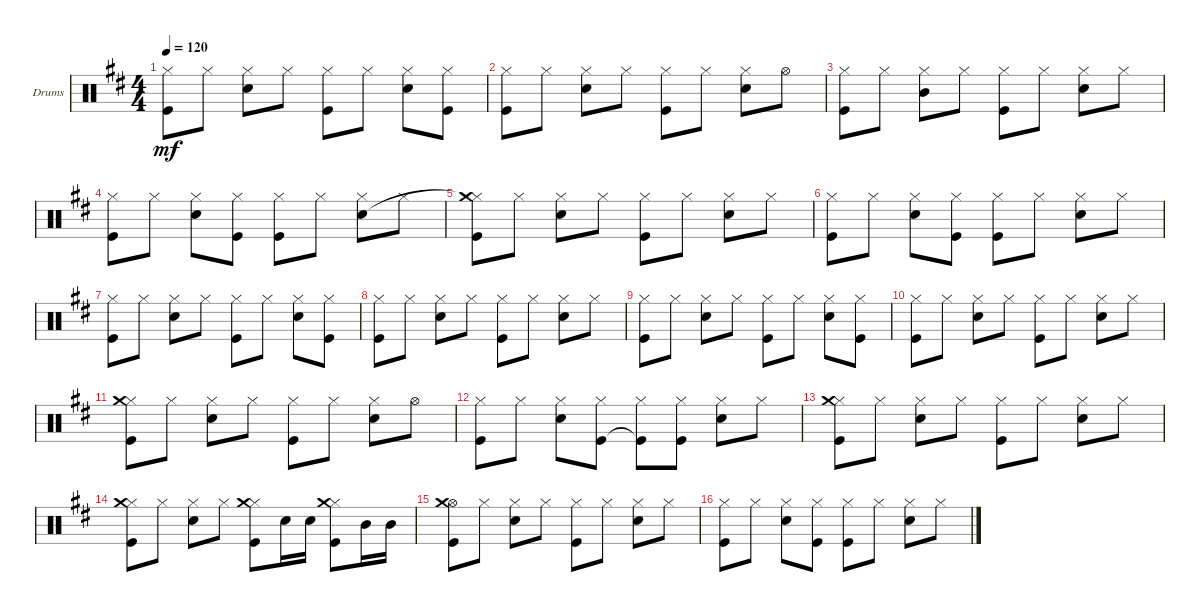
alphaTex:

\defaultSystemsLayout 4
\bracketExtendMode groupsimilarinstruments
\firstSystemTrackNameOrientation horizontal
\otherSystemsTrackNameOrientation horizontal
\track ("Drumkit" "Drums") {instrument percussion}
\staff {score}
\articulation defaults
\ts (4 4)
\tempo 120
\clef neutral
\ks d
("Hi-Hat (closed)" "Kick (hit)").8{dy mf} "Hi-Hat (closed)".8 ("Hi-Hat (closed)" "Snare (hit) 2").8 "Hi-Hat (closed)".8 ("Hi-Hat (closed)" "Kick (hit)").8 "Hi-Hat (closed)".8 ("Hi-Hat (closed)" "Snare (hit) 2").8 ("Hi-Hat (closed)" "Kick (hit)").8 |
("Hi-Hat (closed)" "Kick (hit)").8 "Hi-Hat (closed)".8 ("Hi-Hat (closed)" "Snare (hit) 2").8 "Hi-Hat (closed)".8 ("Hi-Hat (closed)" "Kick (hit)").8 "Hi-Hat (closed)".8 ("Hi-Hat (closed)" "Snare (hit) 2").8 "Hi-Hat (open)".8 |
("Hi-Hat (closed)" "Kick (hit)").8 "Hi-Hat (closed)".8 ("Hi-Hat (closed)" "Mid Tom (hit)").8 "Hi-Hat (closed)".8 ("Hi-Hat (closed)" "Kick (hit)").8 "Hi-Hat (closed)".8 ("Snare (hit) 2" "Hi-Hat (closed)").8 "Hi-Hat (closed)".8 |
("Hi-Hat (closed)" "Kick (hit)").8 "Hi-Hat (closed)".8 ("Hi-Hat (closed)" "Snare (hit) 2").8 ("Hi-Hat (closed)" "Kick (hit)").8 ("Hi-Hat (closed)" "Kick (hit)").8 "Hi-Hat (closed)".8 ("Hi-Hat (closed)" "Snare (hit) 2").8 "Hi-Hat (closed)".8 |
("Kick (hit)" "Hi-Hat (closed)"{t} "Crash medium (hit)").8 "Hi-Hat (closed)".8 ("Hi-Hat (closed)" "Snare (hit) 2").8 "Hi-Hat (closed)".8 ("Hi-Hat (closed)" "Kick (hit)").8 "Hi-Hat (closed)".8 ("Hi-Hat (closed)" "Snare (hit) 2").8 "Hi-Hat (closed)".8 |
("Kick (hit)" "Hi-Hat (closed)").8 "Hi-Hat (closed)".8 ("Hi-Hat (closed)" "Snare (hit) 2").8 ("Kick (hit)" "Hi-Hat (closed)").8 ("Hi-Hat (closed)" "Kick (hit)").8 "Hi-Hat (closed)".8 ("Hi-Hat (closed)" "Snare (hit) 2").8 "Hi-Hat (closed)".8 |
("Hi-Hat (closed)" "Kick (hit)").8 "Hi-Hat (closed)".8 ("Hi-Hat (closed)" "Snare (hit) 2").8 "Hi-Hat (closed)".8 ("Hi-Hat (closed)" "Kick (hit)").8 "Hi-Hat (closed)".8 ("Hi-Hat (closed)" "Snare (hit) 2").8 ("Kick (hit)" "Hi-Hat (closed)").8 |
("Hi-Hat (closed)" "Kick (hit)").8 "Hi-Hat (closed)".8 ("Hi-Hat (closed)" "Snare (hit) 2").8 "Hi-Hat (closed)".8 ("Hi-Hat (closed)" "Kick (hit)").8 "Hi-Hat (closed)".8 ("Hi-Hat (closed)" "Snare (hit) 2").8 "Hi-Hat (closed)".8 |
("Hi-Hat (closed)" "Kick (hit)").8 "Hi-Hat (closed)".8 ("Hi-Hat (closed)" "Snare (hit) 2").8 "Hi-Hat (closed)".8 ("Hi-Hat (closed)" "Kick (hit)").8 "Hi-Hat (closed)".8 ("Hi-Hat (closed)" "Snare (hit) 2").8 ("Hi-Hat (closed)" "Kick (hit)").8 |
("Hi-Hat (closed)" "Kick (hit)").8 "Hi-Hat (closed)".8 ("Hi-Hat (closed)" "Snare (hit) 2").8 "Hi-Hat (closed)".8 ("Hi-Hat (closed)" "Kick (hit)").8 "Hi-Hat (closed)".8 ("Hi-Hat (closed)" "Snare (hit) 2").8 "Hi-Hat (closed)".8 |
("Hi-Hat (closed)" "Crash medium (hit)" "Kick (hit)").8 "Hi-Hat (closed)".8 ("Hi-Hat (closed)" "Snare (hit) 2").8 "Hi-Hat (closed)".8 ("Hi-Hat (closed)" "Kick (hit)").8 "Hi-Hat (closed)".8 ("Hi-Hat (closed)" "Snare (hit) 2").8 "Hi-Hat (open)".8 |
("Hi-Hat (closed)" "Kick (hit)").8 "Hi-Hat (closed)".8 ("Hi-Hat (closed)" "Snare (hit) 2").8 ("Kick (hit)" "Hi-Hat (closed)").8 ("Kick (hit)"{t} "Hi-Hat (closed)").8 ("Hi-Hat (closed)" "Kick (hit)").8 ("Hi-Hat (closed)" "Snare (hit) 2").8 "Hi-Hat (closed)".8 |
("Hi-Hat (closed)" "Crash medium (hit)" "Kick (hit)").8 "Hi-Hat (closed)".8 ("Hi-Hat (closed)" "Snare (hit) 2").8 "Hi-Hat (closed)".8 ("Hi-Hat (closed)" "Kick (hit)").8 "Hi-Hat (closed)".8 ("Snare (hit) 2" "Hi-Hat (closed)").8 "Hi-Hat (closed)".8 |
("Hi-Hat (closed)" "Crash medium (hit)" "Kick (hit)").8 "Hi-Hat (closed)".8 ("Hi-Hat (closed)" "Snare (hit) 2").8 "Hi-Hat (closed)".8 ("Hi-Hat (closed)" "Crash medium (hit)" "Kick (hit)").8 "Snare (hit) 2".16 "Snare (hit) 2".16 ("Hi-Hat (closed)" "Crash medium (hit)" "Kick (hit)").8 "Mid Tom (hit)".16 "Mid Tom (hit)".16 |
("Hi-Hat (open)" "Kick (hit)" "Crash medium (hit)").8 "Hi-Hat (closed)".8 ("Hi-Hat (closed)" "Snare (hit) 2").8 "Hi-Hat (closed)".8 ("Hi-Hat (closed)" "Kick (hit)").8 "Hi-Hat (closed)".8 ("Hi-Hat (closed)" "Snare (hit) 2").8 "Hi-Hat (closed)".8 |
("Hi-Hat (closed)" "Kick (hit)").8 "Hi-Hat (closed)".8 ("Hi-Hat (closed)" "Snare (hit) 2").8 ("Hi-Hat (closed)" "Kick (hit)").8 ("Hi-Hat (closed)" "Kick (hit)").8 "Hi-Hat (closed)".8 ("Hi-Hat (closed)" "Snare (hit) 2").8 "Hi-Hat (closed)".8
